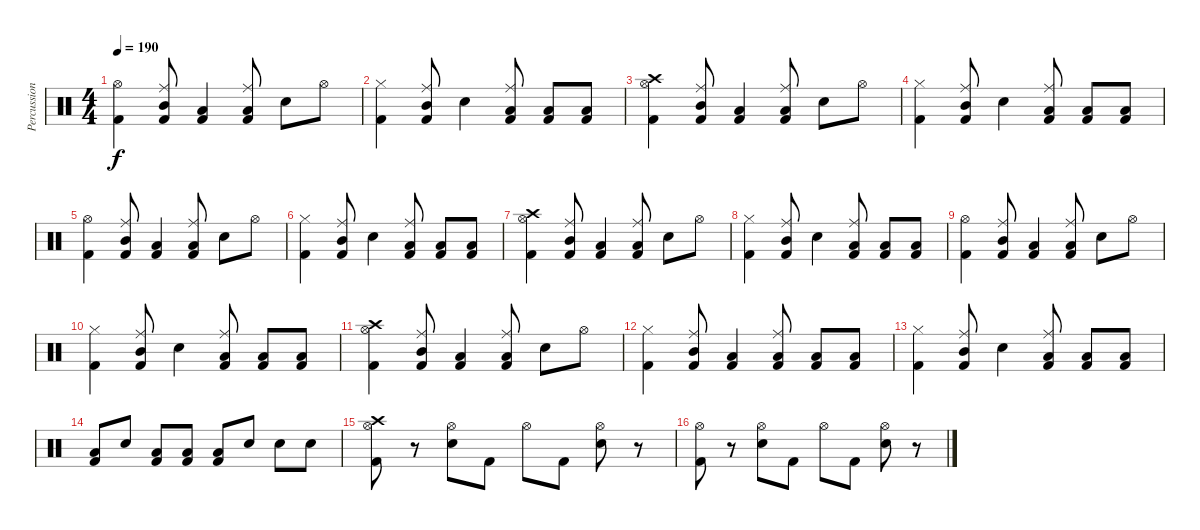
\track ("Percussion" "Percussion") {instrument percussion}
\staff {score}
\articulation defaults
\ts (4 4)
\tempo 190
\clef neutral
\ks c
("Kick (hit) 2" "Hi-Hat (open)").4{dy f} ("Ride (middle)" "Kick (hit) 2" "Mid Tom (hit)").8 ("Low Tom (hit)" "Kick (hit) 2").4 ("Ride (middle)" "Kick (hit) 2" "Low Tom (hit)").8 "Snare (hit) 2".8 "Hi-Hat (open)".8 |
("Kick (hit) 2" "Hi-Hat (closed)").4 ("Ride (middle)" "Kick (hit) 2" "Mid Tom (hit)").8 "Snare (hit) 2".4 ("Ride (middle)" "Kick (hit) 2" "Low Tom (hit)").8 ("Low Tom (hit)" "Kick (hit) 2").8 ("Low Tom (hit)" "Kick (hit) 2").8 |
("Kick (hit) 2" "Crash high (hit)" "Hi-Hat (open)").4 ("Ride (middle)" "Kick (hit) 2" "Mid Tom (hit)").8 ("Low Tom (hit)" "Kick (hit) 2").4 ("Ride (middle)" "Kick (hit) 2" "Low Tom (hit)").8 "Snare (hit) 2".8 "Hi-Hat (open)".8 |
("Kick (hit) 2" "Hi-Hat (closed)").4 ("Ride (middle)" "Kick (hit) 2" "Mid Tom (hit)").8 "Snare (hit) 2".4 ("Ride (middle)" "Kick (hit) 2" "Low Tom (hit)").8 ("Low Tom (hit)" "Kick (hit) 2").8 ("Low Tom (hit)" "Kick (hit) 2").8 |
("Kick (hit) 2" "Hi-Hat (open)").4 ("Ride (middle)" "Kick (hit) 2" "Mid Tom (hit)").8 ("Low Tom (hit)" "Kick (hit) 2").4 ("Ride (middle)" "Kick (hit) 2" "Low Tom (hit)").8 "Snare (hit) 2".8 "Hi-Hat (open)".8 |
("Kick (hit) 2" "Hi-Hat (closed)").4 ("Ride (middle)" "Kick (hit) 2" "Mid Tom (hit)").8 "Snare (hit) 2".4 ("Ride (middle)" "Kick (hit) 2" "Low Tom (hit)").8 ("Low Tom (hit)" "Kick (hit) 2").8 ("Low Tom (hit)" "Kick (hit) 2").8 |
("Kick (hit) 2" "Crash high (hit)" "Hi-Hat (open)").4 ("Ride (middle)" "Kick (hit) 2" "Mid Tom (hit)").8 ("Low Tom (hit)" "Kick (hit) 2").4 ("Ride (middle)" "Kick (hit) 2" "Low Tom (hit)").8 "Snare (hit) 2".8 "Hi-Hat (open)".8 |
("Kick (hit) 2" "Hi-Hat (closed)").4 ("Ride (middle)" "Kick (hit) 2" "Mid Tom (hit)").8 "Snare (hit) 2".4 ("Ride (middle)" "Kick (hit) 2" "Low Tom (hit)").8 ("Low Tom (hit)" "Kick (hit) 2").8 ("Low Tom (hit)" "Kick (hit) 2").8 |
("Kick (hit) 2" "Hi-Hat (open)").4 ("Ride (middle)" "Kick (hit) 2" "Mid Tom (hit)").8 ("Low Tom (hit)" "Kick (hit) 2").4 ("Ride (middle)" "Kick (hit) 2" "Low Tom (hit)").8 "Snare (hit) 2".8 "Hi-Hat (open)".8 |
("Kick (hit) 2" "Hi-Hat (closed)").4 ("Ride (middle)" "Kick (hit) 2" "Mid Tom (hit)").8 "Snare (hit) 2".4 ("Ride (middle)" "Kick (hit) 2" "Low Tom (hit)").8 ("Low Tom (hit)" "Kick (hit) 2").8 ("Low Tom (hit)" "Kick (hit) 2").8 |
("Kick (hit) 2" "Crash high (hit)" "Hi-Hat (open)").4 ("Ride (middle)" "Kick (hit) 2" "Mid Tom (hit)").8 ("Low Tom (hit)" "Kick (hit) 2").4 ("Ride (middle)" "Kick (hit) 2" "Low Tom (hit)").8 "Snare (hit) 2".8 "Hi-Hat (open)".8 |
("Kick (hit) 2" "Hi-Hat (closed)").4 ("Ride (middle)" "Kick (hit) 2" "Mid Tom (hit)").8 ("Low Tom (hit)" "Kick (hit) 2").4 ("Ride (middle)" "Kick (hit) 2" "Low Tom (hit)").8 ("Low Tom (hit)" "Kick (hit) 2").8 ("Low Tom (hit)" "Kick (hit) 2").8 |
("Kick (hit) 2" "Hi-Hat (closed)").4 ("Ride (middle)" "Kick (hit) 2" "Mid Tom (hit)").8 "Snare (hit) 2".4 ("Ride (middle)" "Kick (hit) 2" "Low Tom (hit)").8 ("Low Tom (hit)" "Kick (hit) 2").8 ("Low Tom (hit)" "Kick (hit) 2").8 |
("Kick (hit) 2" "Low Tom (hit)").8 "Snare (hit) 2".8 ("Kick (hit) 2" "Low Tom (hit)").8 ("Kick (hit) 2" "Low Tom (hit)").8 ("Kick (hit) 2" "Low Tom (hit)").8 "Snare (hit) 2".8 "Snare (hit) 2".8 "Snare (hit) 2".8 |
("Hi-Hat (open)" "Crash high (hit)" "Kick (hit) 2").8 r.8 ("Hi-Hat (open)" "Snare (hit) 2").8 "Kick (hit) 2".8 "Hi-Hat (open)".8 "Kick (hit) 2".8 ("Hi-Hat (open)" "Snare (hit) 2").8 r.8 |
("Hi-Hat (open)" "Kick (hit) 2").8 r.8 ("Hi-Hat (open)" "Snare (hit) 2").8 "Kick (hit) 2".8 "Hi-Hat (open)".8 "Kick (hit) 2".8 ("Hi-Hat (open)" "Snare (hit) 2").8 r.8
